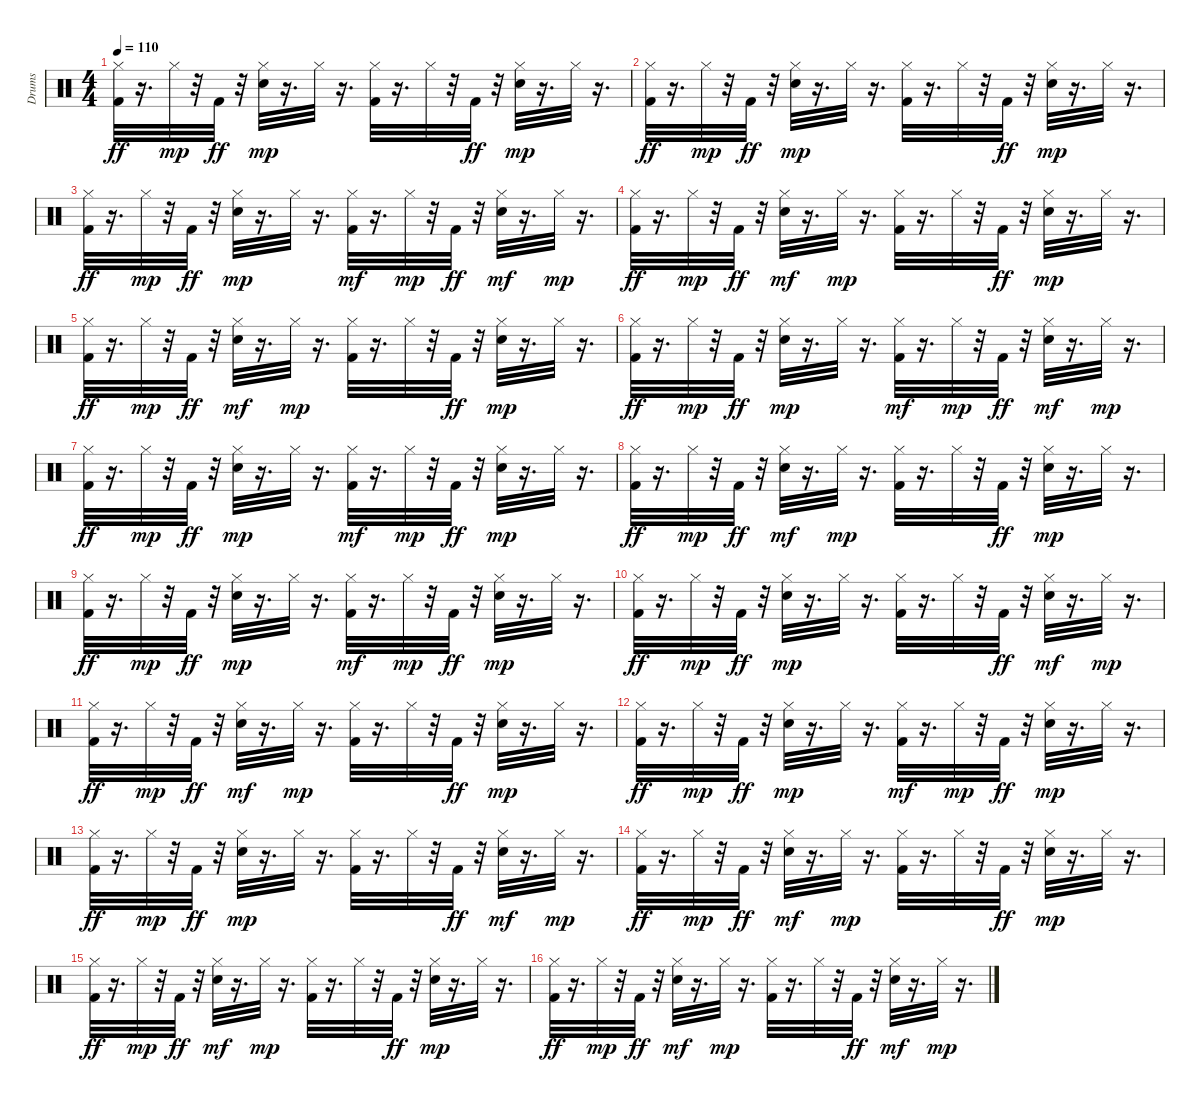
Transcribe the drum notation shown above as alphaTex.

\track ("Drums   " "Drums   ") {instrument percussion}
\staff {score}
\articulation defaults
\ts (4 4)
\tempo 110
\clef neutral
\ks c
("Hi-Hat (closed)" "Kick (hit) 2").32{dy ff} r.16{d} "Hi-Hat (closed)".32{dy mp} r.32 "Kick (hit) 2".32{dy ff} r.32 ("Snare (hit) 2" "Hi-Hat (closed)").32{dy mp} r.16{d} "Hi-Hat (closed)".32 r.16{d} ("Kick (hit) 2" "Hi-Hat (closed)").32 r.16{d} "Hi-Hat (closed)".32 r.32 "Kick (hit) 2".32{dy ff} r.32 ("Snare (hit) 2" "Hi-Hat (closed)").32{dy mp} r.16{d} "Hi-Hat (closed)".32 r.16{d} |
("Hi-Hat (closed)" "Kick (hit) 2").32{dy ff} r.16{d} "Hi-Hat (closed)".32{dy mp} r.32 "Kick (hit) 2".32{dy ff} r.32 ("Snare (hit) 2" "Hi-Hat (closed)").32{dy mp} r.16{d} "Hi-Hat (closed)".32 r.16{d} ("Kick (hit) 2" "Hi-Hat (closed)").32 r.16{d} "Hi-Hat (closed)".32 r.32 "Kick (hit) 2".32{dy ff} r.32 ("Snare (hit) 2" "Hi-Hat (closed)").32{dy mp} r.16{d} "Hi-Hat (closed)".32 r.16{d} |
("Hi-Hat (closed)" "Kick (hit) 2").32{dy ff} r.16{d} "Hi-Hat (closed)".32{dy mp} r.32 "Kick (hit) 2".32{dy ff} r.32 ("Snare (hit) 2" "Hi-Hat (closed)").32{dy mp} r.16{d} "Hi-Hat (closed)".32 r.16{d} ("Kick (hit) 2" "Hi-Hat (closed)").32{dy mf} r.16{d} "Hi-Hat (closed)".32{dy mp} r.32 "Kick (hit) 2".32{dy ff} r.32 ("Snare (hit) 2" "Hi-Hat (closed)").32{dy mf} r.16{d} "Hi-Hat (closed)".32{dy mp} r.16{d} |
("Hi-Hat (closed)" "Kick (hit) 2").32{dy ff} r.16{d} "Hi-Hat (closed)".32{dy mp} r.32 "Kick (hit) 2".32{dy ff} r.32 ("Snare (hit) 2" "Hi-Hat (closed)").32{dy mf} r.16{d} "Hi-Hat (closed)".32{dy mp} r.16{d} ("Kick (hit) 2" "Hi-Hat (closed)").32 r.16{d} "Hi-Hat (closed)".32 r.32 "Kick (hit) 2".32{dy ff} r.32 ("Snare (hit) 2" "Hi-Hat (closed)").32{dy mp} r.16{d} "Hi-Hat (closed)".32 r.16{d} |
("Hi-Hat (closed)" "Kick (hit) 2").32{dy ff} r.16{d} "Hi-Hat (closed)".32{dy mp} r.32 "Kick (hit) 2".32{dy ff} r.32 ("Snare (hit) 2" "Hi-Hat (closed)").32{dy mf} r.16{d} "Hi-Hat (closed)".32{dy mp} r.16{d} ("Kick (hit) 2" "Hi-Hat (closed)").32 r.16{d} "Hi-Hat (closed)".32 r.32 "Kick (hit) 2".32{dy ff} r.32 ("Snare (hit) 2" "Hi-Hat (closed)").32{dy mp} r.16{d} "Hi-Hat (closed)".32 r.16{d} |
("Hi-Hat (closed)" "Kick (hit) 2").32{dy ff} r.16{d} "Hi-Hat (closed)".32{dy mp} r.32 "Kick (hit) 2".32{dy ff} r.32 ("Snare (hit) 2" "Hi-Hat (closed)").32{dy mp} r.16{d} "Hi-Hat (closed)".32 r.16{d} ("Kick (hit) 2" "Hi-Hat (closed)").32{dy mf} r.16{d} "Hi-Hat (closed)".32{dy mp} r.32 "Kick (hit) 2".32{dy ff} r.32 ("Snare (hit) 2" "Hi-Hat (closed)").32{dy mf} r.16{d} "Hi-Hat (closed)".32{dy mp} r.16{d} |
("Hi-Hat (closed)" "Kick (hit) 2").32{dy ff} r.16{d} "Hi-Hat (closed)".32{dy mp} r.32 "Kick (hit) 2".32{dy ff} r.32 ("Snare (hit) 2" "Hi-Hat (closed)").32{dy mp} r.16{d} "Hi-Hat (closed)".32 r.16{d} ("Kick (hit) 2" "Hi-Hat (closed)").32{dy mf} r.16{d} "Hi-Hat (closed)".32{dy mp} r.32 "Kick (hit) 2".32{dy ff} r.32 ("Snare (hit) 2" "Hi-Hat (closed)").32{dy mp} r.16{d} "Hi-Hat (closed)".32 r.16{d} |
("Hi-Hat (closed)" "Kick (hit) 2").32{dy ff} r.16{d} "Hi-Hat (closed)".32{dy mp} r.32 "Kick (hit) 2".32{dy ff} r.32 ("Snare (hit) 2" "Hi-Hat (closed)").32{dy mf} r.16{d} "Hi-Hat (closed)".32{dy mp} r.16{d} ("Kick (hit) 2" "Hi-Hat (closed)").32 r.16{d} "Hi-Hat (closed)".32 r.32 "Kick (hit) 2".32{dy ff} r.32 ("Snare (hit) 2" "Hi-Hat (closed)").32{dy mp} r.16{d} "Hi-Hat (closed)".32 r.16{d} |
("Hi-Hat (closed)" "Kick (hit) 2").32{dy ff} r.16{d} "Hi-Hat (closed)".32{dy mp} r.32 "Kick (hit) 2".32{dy ff} r.32 ("Snare (hit) 2" "Hi-Hat (closed)").32{dy mp} r.16{d} "Hi-Hat (closed)".32 r.16{d} ("Kick (hit) 2" "Hi-Hat (closed)").32{dy mf} r.16{d} "Hi-Hat (closed)".32{dy mp} r.32 "Kick (hit) 2".32{dy ff} r.32 ("Snare (hit) 2" "Hi-Hat (closed)").32{dy mp} r.16{d} "Hi-Hat (closed)".32 r.16{d} |
("Hi-Hat (closed)" "Kick (hit) 2").32{dy ff} r.16{d} "Hi-Hat (closed)".32{dy mp} r.32 "Kick (hit) 2".32{dy ff} r.32 ("Snare (hit) 2" "Hi-Hat (closed)").32{dy mp} r.16{d} "Hi-Hat (closed)".32 r.16{d} ("Kick (hit) 2" "Hi-Hat (closed)").32 r.16{d} "Hi-Hat (closed)".32 r.32 "Kick (hit) 2".32{dy ff} r.32 ("Snare (hit) 2" "Hi-Hat (closed)").32{dy mf} r.16{d} "Hi-Hat (closed)".32{dy mp} r.16{d} |
("Hi-Hat (closed)" "Kick (hit) 2").32{dy ff} r.16{d} "Hi-Hat (closed)".32{dy mp} r.32 "Kick (hit) 2".32{dy ff} r.32 ("Snare (hit) 2" "Hi-Hat (closed)").32{dy mf} r.16{d} "Hi-Hat (closed)".32{dy mp} r.16{d} ("Kick (hit) 2" "Hi-Hat (closed)").32 r.16{d} "Hi-Hat (closed)".32 r.32 "Kick (hit) 2".32{dy ff} r.32 ("Snare (hit) 2" "Hi-Hat (closed)").32{dy mp} r.16{d} "Hi-Hat (closed)".32 r.16{d} |
("Hi-Hat (closed)" "Kick (hit) 2").32{dy ff} r.16{d} "Hi-Hat (closed)".32{dy mp} r.32 "Kick (hit) 2".32{dy ff} r.32 ("Snare (hit) 2" "Hi-Hat (closed)").32{dy mp} r.16{d} "Hi-Hat (closed)".32 r.16{d} ("Kick (hit) 2" "Hi-Hat (closed)").32{dy mf} r.16{d} "Hi-Hat (closed)".32{dy mp} r.32 "Kick (hit) 2".32{dy ff} r.32 ("Snare (hit) 2" "Hi-Hat (closed)").32{dy mp} r.16{d} "Hi-Hat (closed)".32 r.16{d} |
("Hi-Hat (closed)" "Kick (hit) 2").32{dy ff} r.16{d} "Hi-Hat (closed)".32{dy mp} r.32 "Kick (hit) 2".32{dy ff} r.32 ("Snare (hit) 2" "Hi-Hat (closed)").32{dy mp} r.16{d} "Hi-Hat (closed)".32 r.16{d} ("Kick (hit) 2" "Hi-Hat (closed)").32 r.16{d} "Hi-Hat (closed)".32 r.32 "Kick (hit) 2".32{dy ff} r.32 ("Snare (hit) 2" "Hi-Hat (closed)").32{dy mf} r.16{d} "Hi-Hat (closed)".32{dy mp} r.16{d} |
("Hi-Hat (closed)" "Kick (hit) 2").32{dy ff} r.16{d} "Hi-Hat (closed)".32{dy mp} r.32 "Kick (hit) 2".32{dy ff} r.32 ("Snare (hit) 2" "Hi-Hat (closed)").32{dy mf} r.16{d} "Hi-Hat (closed)".32{dy mp} r.16{d} ("Kick (hit) 2" "Hi-Hat (closed)").32 r.16{d} "Hi-Hat (closed)".32 r.32 "Kick (hit) 2".32{dy ff} r.32 ("Snare (hit) 2" "Hi-Hat (closed)").32{dy mp} r.16{d} "Hi-Hat (closed)".32 r.16{d} |
("Hi-Hat (closed)" "Kick (hit) 2").32{dy ff} r.16{d} "Hi-Hat (closed)".32{dy mp} r.32 "Kick (hit) 2".32{dy ff} r.32 ("Snare (hit) 2" "Hi-Hat (closed)").32{dy mf} r.16{d} "Hi-Hat (closed)".32{dy mp} r.16{d} ("Kick (hit) 2" "Hi-Hat (closed)").32 r.16{d} "Hi-Hat (closed)".32 r.32 "Kick (hit) 2".32{dy ff} r.32 ("Snare (hit) 2" "Hi-Hat (closed)").32{dy mp} r.16{d} "Hi-Hat (closed)".32 r.16{d} |
("Hi-Hat (closed)" "Kick (hit) 2").32{dy ff} r.16{d} "Hi-Hat (closed)".32{dy mp} r.32 "Kick (hit) 2".32{dy ff} r.32 ("Snare (hit) 2" "Hi-Hat (closed)").32{dy mf} r.16{d} "Hi-Hat (closed)".32{dy mp} r.16{d} ("Kick (hit) 2" "Hi-Hat (closed)").32 r.16{d} "Hi-Hat (closed)".32 r.32 "Kick (hit) 2".32{dy ff} r.32 ("Snare (hit) 2" "Hi-Hat (closed)").32{dy mf} r.16{d} "Hi-Hat (closed)".32{dy mp} r.16{d}
